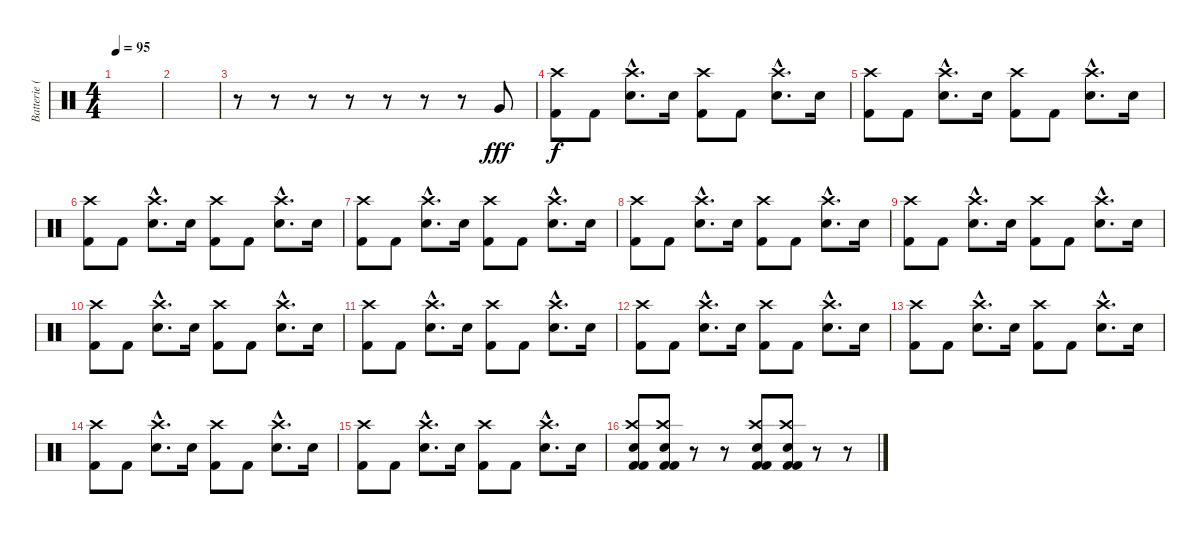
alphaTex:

\track ("Batterie (Hervé)" "Batterie (") {instrument percussion}
\staff {score}
\articulation defaults
\ts (4 4)
\tempo 95
\clef neutral
\ks c
|
|
r.8 r.8 r.8 r.8 r.8 r.8 r.8 "Very Low Tom (hit)".8{dy fff} |
("Kick (hit) 2" "Crash high (hit)").8{dy f} "Kick (hit) 2".8 ("Snare (hit) 2"{hac} "Crash high (hit)"{hac}).8{d} "Snare (hit) 2".16 ("Kick (hit) 2" "Crash high (hit)").8 "Kick (hit) 2".8 ("Snare (hit) 2"{hac} "Crash high (hit)"{hac}).8{d} "Snare (hit) 2".16 |
("Kick (hit) 2" "Crash high (hit)").8 "Kick (hit) 2".8 ("Snare (hit) 2"{hac} "Crash high (hit)"{hac}).8{d} "Snare (hit) 2".16 ("Kick (hit) 2" "Crash high (hit)").8 "Kick (hit) 2".8 ("Snare (hit) 2"{hac} "Crash high (hit)"{hac}).8{d} "Snare (hit) 2".16 |
("Kick (hit) 2" "Crash high (hit)").8 "Kick (hit) 2".8 ("Snare (hit) 2"{hac} "Crash high (hit)"{hac}).8{d} "Snare (hit) 2".16 ("Kick (hit) 2" "Crash high (hit)").8 "Kick (hit) 2".8 ("Snare (hit) 2"{hac} "Crash high (hit)"{hac}).8{d} "Snare (hit) 2".16 |
("Kick (hit) 2" "Crash high (hit)").8 "Kick (hit) 2".8 ("Snare (hit) 2"{hac} "Crash high (hit)"{hac}).8{d} "Snare (hit) 2".16 ("Kick (hit) 2" "Crash high (hit)").8 "Kick (hit) 2".8 ("Snare (hit) 2"{hac} "Crash high (hit)"{hac}).8{d} "Snare (hit) 2".16 |
("Kick (hit) 2" "Crash high (hit)").8 "Kick (hit) 2".8 ("Snare (hit) 2"{hac} "Crash high (hit)"{hac}).8{d} "Snare (hit) 2".16 ("Kick (hit) 2" "Crash high (hit)").8 "Kick (hit) 2".8 ("Snare (hit) 2"{hac} "Crash high (hit)"{hac}).8{d} "Snare (hit) 2".16 |
("Kick (hit) 2" "Crash high (hit)").8 "Kick (hit) 2".8 ("Snare (hit) 2"{hac} "Crash high (hit)"{hac}).8{d} "Snare (hit) 2".16 ("Kick (hit) 2" "Crash high (hit)").8 "Kick (hit) 2".8 ("Snare (hit) 2"{hac} "Crash high (hit)"{hac}).8{d} "Snare (hit) 2".16 |
("Kick (hit) 2" "Crash high (hit)").8 "Kick (hit) 2".8 ("Snare (hit) 2"{hac} "Crash high (hit)"{hac}).8{d} "Snare (hit) 2".16 ("Kick (hit) 2" "Crash high (hit)").8 "Kick (hit) 2".8 ("Snare (hit) 2"{hac} "Crash high (hit)"{hac}).8{d} "Snare (hit) 2".16 |
("Kick (hit) 2" "Crash high (hit)").8 "Kick (hit) 2".8 ("Snare (hit) 2"{hac} "Crash high (hit)"{hac}).8{d} "Snare (hit) 2".16 ("Kick (hit) 2" "Crash high (hit)").8 "Kick (hit) 2".8 ("Snare (hit) 2"{hac} "Crash high (hit)"{hac}).8{d} "Snare (hit) 2".16 |
("Kick (hit) 2" "Crash high (hit)").8 "Kick (hit) 2".8 ("Snare (hit) 2"{hac} "Crash high (hit)"{hac}).8{d} "Snare (hit) 2".16 ("Kick (hit) 2" "Crash high (hit)").8 "Kick (hit) 2".8 ("Snare (hit) 2"{hac} "Crash high (hit)"{hac}).8{d} "Snare (hit) 2".16 |
("Kick (hit) 2" "Crash high (hit)").8 "Kick (hit) 2".8 ("Snare (hit) 2"{hac} "Crash high (hit)"{hac}).8{d} "Snare (hit) 2".16 ("Kick (hit) 2" "Crash high (hit)").8 "Kick (hit) 2".8 ("Snare (hit) 2"{hac} "Crash high (hit)"{hac}).8{d} "Snare (hit) 2".16 |
("Kick (hit) 2" "Crash high (hit)").8 "Kick (hit) 2".8 ("Snare (hit) 2"{hac} "Crash high (hit)"{hac}).8{d} "Snare (hit) 2".16 ("Kick (hit) 2" "Crash high (hit)").8 "Kick (hit) 2".8 ("Snare (hit) 2"{hac} "Crash high (hit)"{hac}).8{d} "Snare (hit) 2".16 |
("Kick (hit) 2" "Crash high (hit)").8 "Kick (hit) 2".8 ("Snare (hit) 2"{hac} "Crash high (hit)"{hac}).8{d} "Snare (hit) 2".16 ("Kick (hit) 2" "Crash high (hit)").8 "Kick (hit) 2".8 ("Snare (hit) 2"{hac} "Crash high (hit)"{hac}).8{d} "Snare (hit) 2".16 |
("Kick (hit) 2" "Kick (hit) 2" "Snare (hit) 2" "Crash high (hit)").8 ("Kick (hit) 2" "Kick (hit) 2" "Snare (hit) 2" "Crash high (hit)").8 r.8 r.8 ("Kick (hit) 2" "Kick (hit) 2" "Snare (hit) 2" "Crash high (hit)").8 ("Kick (hit) 2" "Kick (hit) 2" "Snare (hit) 2" "Crash high (hit)").8 r.8 r.8
